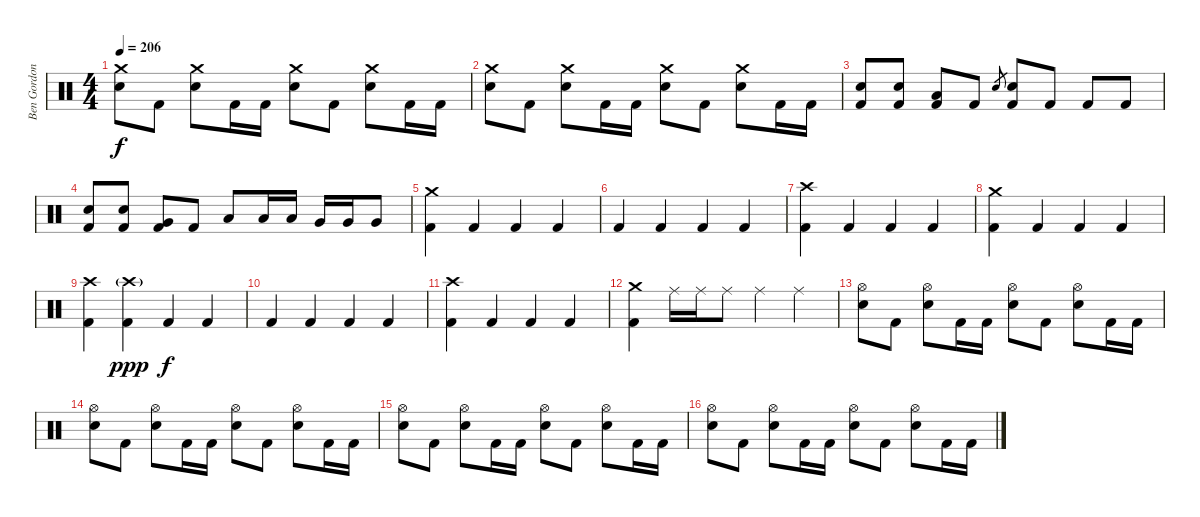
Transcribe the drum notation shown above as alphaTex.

\track ("Ben Gordon" "Ben Gordon") {instrument percussion}
\staff {score}
\articulation defaults
\ts (4 4)
\tempo 206
\clef neutral
\ks c
("Crash medium (hit)" "Electric Snare (hit)").8{dy f} "Kick (hit) 2".8 ("Crash medium (hit)" "Electric Snare (hit)").8 "Kick (hit) 2".16 "Kick (hit) 2".16 ("Crash medium (hit)" "Electric Snare (hit)").8 "Kick (hit) 2".8 ("Crash medium (hit)" "Electric Snare (hit)").8 "Kick (hit) 2".16 "Kick (hit) 2".16 |
("Crash medium (hit)" "Electric Snare (hit)").8 "Kick (hit) 2".8 ("Crash medium (hit)" "Electric Snare (hit)").8 "Kick (hit) 2".16 "Kick (hit) 2".16 ("Crash medium (hit)" "Electric Snare (hit)").8 "Kick (hit) 2".8 ("Crash medium (hit)" "Electric Snare (hit)").8 "Kick (hit) 2".16 "Kick (hit) 2".16 |
("Electric Snare (hit)" "Kick (hit) 2").8 ("Electric Snare (hit)" "Kick (hit) 2").8 ("Low Tom (hit)" "Kick (hit) 2").8 "Kick (hit) 2".8 "Electric Snare (hit)".8{gr} ("Electric Snare (hit)" "Kick (hit) 2").8 "Kick (hit) 2".8 "Kick (hit) 2".8 "Kick (hit) 2".8 |
("Electric Snare (hit)" "Kick (hit) 2").8 ("Electric Snare (hit)" "Kick (hit) 2").8 ("Very Low Tom (hit)" "Kick (hit) 2").8 "Kick (hit) 2".8 "Low Tom (hit)".8 "Low Tom (hit)".16 "Low Tom (hit)".16 "Very Low Tom (hit)".16 "Very Low Tom (hit)".16 "Very Low Tom (hit)".8 |
("Crash medium (hit)" "Kick (hit) 2").4 "Kick (hit) 2".4 "Kick (hit) 2".4 "Kick (hit) 2".4 |
"Kick (hit) 2".4 "Kick (hit) 2".4 "Kick (hit) 2".4 "Kick (hit) 2".4 |
("Crash high (hit)" "Kick (hit) 2").4 "Kick (hit) 2".4 "Kick (hit) 2".4 "Kick (hit) 2".4 |
("Crash medium (hit)" "Kick (hit) 2").4 "Kick (hit) 2".4 "Kick (hit) 2".4 "Kick (hit) 2".4 |
("Crash high (hit)" "Kick (hit) 2").4 ("Crash high (hit)"{g} "Kick (hit) 2").4{dy ppp} "Kick (hit) 2".4{dy f} "Kick (hit) 2".4 |
"Kick (hit) 2".4 "Kick (hit) 2".4 "Kick (hit) 2".4 "Kick (hit) 2".4 |
("Crash high (hit)" "Kick (hit) 2").4 "Kick (hit) 2".4 "Kick (hit) 2".4 "Kick (hit) 2".4 |
("Crash medium (hit)" "Kick (hit) 2").4 "Ride (middle)".16 "Ride (middle)".16 "Ride (middle)".8 "Ride (middle)".4 "Ride (middle)".4 |
("Hi-Hat (open)" "Electric Snare (hit)").8 "Kick (hit) 2".8 ("Hi-Hat (open)" "Electric Snare (hit)").8 "Kick (hit) 2".16 "Kick (hit) 2".16 ("Hi-Hat (open)" "Electric Snare (hit)").8 "Kick (hit) 2".8 ("Hi-Hat (open)" "Electric Snare (hit)").8 "Kick (hit) 2".16 "Kick (hit) 2".16 |
("Hi-Hat (open)" "Electric Snare (hit)").8 "Kick (hit) 2".8 ("Hi-Hat (open)" "Electric Snare (hit)").8 "Kick (hit) 2".16 "Kick (hit) 2".16 ("Hi-Hat (open)" "Electric Snare (hit)").8 "Kick (hit) 2".8 ("Hi-Hat (open)" "Electric Snare (hit)").8 "Kick (hit) 2".16 "Kick (hit) 2".16 |
("Hi-Hat (open)" "Electric Snare (hit)").8 "Kick (hit) 2".8 ("Hi-Hat (open)" "Electric Snare (hit)").8 "Kick (hit) 2".16 "Kick (hit) 2".16 ("Hi-Hat (open)" "Electric Snare (hit)").8 "Kick (hit) 2".8 ("Hi-Hat (open)" "Electric Snare (hit)").8 "Kick (hit) 2".16 "Kick (hit) 2".16 |
("Hi-Hat (open)" "Electric Snare (hit)").8 "Kick (hit) 2".8 ("Hi-Hat (open)" "Electric Snare (hit)").8 "Kick (hit) 2".16 "Kick (hit) 2".16 ("Hi-Hat (open)" "Electric Snare (hit)").8 "Kick (hit) 2".8 ("Hi-Hat (open)" "Electric Snare (hit)").8 "Kick (hit) 2".16 "Kick (hit) 2".16
